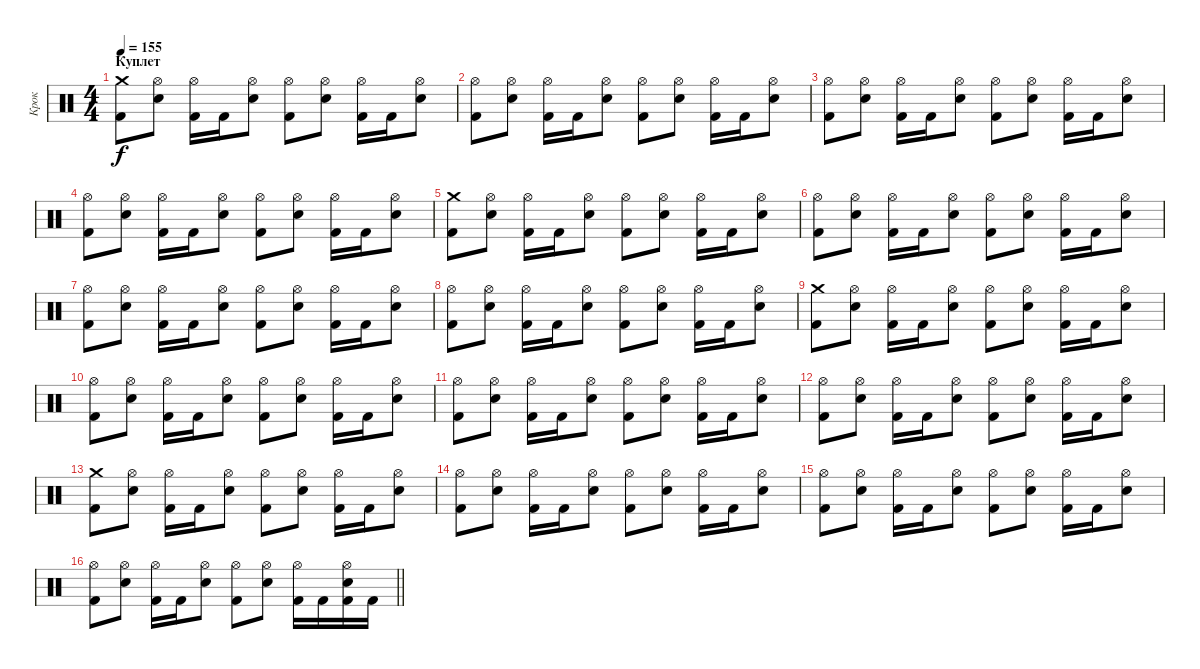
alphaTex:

\track ("Крок" "Крок") {instrument percussion}
\staff {score}
\articulation defaults
\ts (4 4)
\section ("" "Куплет")
\tempo 155
\clef neutral
\ks c
("Crash medium (hit)" "Kick (hit) 2").8{dy f} ("Hi-Hat (open)" "Electric Snare (hit)").8 ("Hi-Hat (open)" "Kick (hit) 2").16 "Kick (hit) 2".16 ("Hi-Hat (open)" "Electric Snare (hit)").8 ("Hi-Hat (open)" "Kick (hit) 2").8 ("Hi-Hat (open)" "Electric Snare (hit)").8 ("Hi-Hat (open)" "Kick (hit) 2").16 "Kick (hit) 2".16 ("Hi-Hat (open)" "Electric Snare (hit)").8 |
("Hi-Hat (open)" "Kick (hit) 2").8 ("Hi-Hat (open)" "Electric Snare (hit)").8 ("Hi-Hat (open)" "Kick (hit) 2").16 "Kick (hit) 2".16 ("Hi-Hat (open)" "Electric Snare (hit)").8 ("Hi-Hat (open)" "Kick (hit) 2").8 ("Hi-Hat (open)" "Electric Snare (hit)").8 ("Hi-Hat (open)" "Kick (hit) 2").16 "Kick (hit) 2".16 ("Hi-Hat (open)" "Electric Snare (hit)").8 |
("Hi-Hat (open)" "Kick (hit) 2").8 ("Hi-Hat (open)" "Electric Snare (hit)").8 ("Hi-Hat (open)" "Kick (hit) 2").16 "Kick (hit) 2".16 ("Hi-Hat (open)" "Electric Snare (hit)").8 ("Hi-Hat (open)" "Kick (hit) 2").8 ("Hi-Hat (open)" "Electric Snare (hit)").8 ("Hi-Hat (open)" "Kick (hit) 2").16 "Kick (hit) 2".16 ("Hi-Hat (open)" "Electric Snare (hit)").8 |
("Hi-Hat (open)" "Kick (hit) 2").8 ("Hi-Hat (open)" "Electric Snare (hit)").8 ("Hi-Hat (open)" "Kick (hit) 2").16 "Kick (hit) 2".16 ("Hi-Hat (open)" "Electric Snare (hit)").8 ("Hi-Hat (open)" "Kick (hit) 2").8 ("Hi-Hat (open)" "Electric Snare (hit)").8 ("Hi-Hat (open)" "Kick (hit) 2").16 "Kick (hit) 2".16 ("Hi-Hat (open)" "Electric Snare (hit)").8 |
("Crash medium (hit)" "Kick (hit) 2").8 ("Hi-Hat (open)" "Electric Snare (hit)").8 ("Hi-Hat (open)" "Kick (hit) 2").16 "Kick (hit) 2".16 ("Hi-Hat (open)" "Electric Snare (hit)").8 ("Hi-Hat (open)" "Kick (hit) 2").8 ("Hi-Hat (open)" "Electric Snare (hit)").8 ("Hi-Hat (open)" "Kick (hit) 2").16 "Kick (hit) 2".16 ("Hi-Hat (open)" "Electric Snare (hit)").8 |
("Hi-Hat (open)" "Kick (hit) 2").8 ("Hi-Hat (open)" "Electric Snare (hit)").8 ("Hi-Hat (open)" "Kick (hit) 2").16 "Kick (hit) 2".16 ("Hi-Hat (open)" "Electric Snare (hit)").8 ("Hi-Hat (open)" "Kick (hit) 2").8 ("Hi-Hat (open)" "Electric Snare (hit)").8 ("Hi-Hat (open)" "Kick (hit) 2").16 "Kick (hit) 2".16 ("Hi-Hat (open)" "Electric Snare (hit)").8 |
("Hi-Hat (open)" "Kick (hit) 2").8 ("Hi-Hat (open)" "Electric Snare (hit)").8 ("Hi-Hat (open)" "Kick (hit) 2").16 "Kick (hit) 2".16 ("Hi-Hat (open)" "Electric Snare (hit)").8 ("Hi-Hat (open)" "Kick (hit) 2").8 ("Hi-Hat (open)" "Electric Snare (hit)").8 ("Hi-Hat (open)" "Kick (hit) 2").16 "Kick (hit) 2".16 ("Hi-Hat (open)" "Electric Snare (hit)").8 |
("Hi-Hat (open)" "Kick (hit) 2").8 ("Hi-Hat (open)" "Electric Snare (hit)").8 ("Hi-Hat (open)" "Kick (hit) 2").16 "Kick (hit) 2".16 ("Hi-Hat (open)" "Electric Snare (hit)").8 ("Hi-Hat (open)" "Kick (hit) 2").8 ("Hi-Hat (open)" "Electric Snare (hit)").8 ("Hi-Hat (open)" "Kick (hit) 2").16 "Kick (hit) 2".16 ("Hi-Hat (open)" "Electric Snare (hit)").8 |
("Crash medium (hit)" "Kick (hit) 2").8 ("Hi-Hat (open)" "Electric Snare (hit)").8 ("Hi-Hat (open)" "Kick (hit) 2").16 "Kick (hit) 2".16 ("Hi-Hat (open)" "Electric Snare (hit)").8 ("Hi-Hat (open)" "Kick (hit) 2").8 ("Hi-Hat (open)" "Electric Snare (hit)").8 ("Hi-Hat (open)" "Kick (hit) 2").16 "Kick (hit) 2".16 ("Hi-Hat (open)" "Electric Snare (hit)").8 |
("Hi-Hat (open)" "Kick (hit) 2").8 ("Hi-Hat (open)" "Electric Snare (hit)").8 ("Hi-Hat (open)" "Kick (hit) 2").16 "Kick (hit) 2".16 ("Hi-Hat (open)" "Electric Snare (hit)").8 ("Hi-Hat (open)" "Kick (hit) 2").8 ("Hi-Hat (open)" "Electric Snare (hit)").8 ("Hi-Hat (open)" "Kick (hit) 2").16 "Kick (hit) 2".16 ("Hi-Hat (open)" "Electric Snare (hit)").8 |
("Hi-Hat (open)" "Kick (hit) 2").8 ("Hi-Hat (open)" "Electric Snare (hit)").8 ("Hi-Hat (open)" "Kick (hit) 2").16 "Kick (hit) 2".16 ("Hi-Hat (open)" "Electric Snare (hit)").8 ("Hi-Hat (open)" "Kick (hit) 2").8 ("Hi-Hat (open)" "Electric Snare (hit)").8 ("Hi-Hat (open)" "Kick (hit) 2").16 "Kick (hit) 2".16 ("Hi-Hat (open)" "Electric Snare (hit)").8 |
("Hi-Hat (open)" "Kick (hit) 2").8 ("Hi-Hat (open)" "Electric Snare (hit)").8 ("Hi-Hat (open)" "Kick (hit) 2").16 "Kick (hit) 2".16 ("Hi-Hat (open)" "Electric Snare (hit)").8 ("Hi-Hat (open)" "Kick (hit) 2").8 ("Hi-Hat (open)" "Electric Snare (hit)").8 ("Hi-Hat (open)" "Kick (hit) 2").16 "Kick (hit) 2".16 ("Hi-Hat (open)" "Electric Snare (hit)").8 |
("Crash medium (hit)" "Kick (hit) 2").8 ("Hi-Hat (open)" "Electric Snare (hit)").8 ("Hi-Hat (open)" "Kick (hit) 2").16 "Kick (hit) 2".16 ("Hi-Hat (open)" "Electric Snare (hit)").8 ("Hi-Hat (open)" "Kick (hit) 2").8 ("Hi-Hat (open)" "Electric Snare (hit)").8 ("Hi-Hat (open)" "Kick (hit) 2").16 "Kick (hit) 2".16 ("Hi-Hat (open)" "Electric Snare (hit)").8 |
("Hi-Hat (open)" "Kick (hit) 2").8 ("Hi-Hat (open)" "Electric Snare (hit)").8 ("Hi-Hat (open)" "Kick (hit) 2").16 "Kick (hit) 2".16 ("Hi-Hat (open)" "Electric Snare (hit)").8 ("Hi-Hat (open)" "Kick (hit) 2").8 ("Hi-Hat (open)" "Electric Snare (hit)").8 ("Hi-Hat (open)" "Kick (hit) 2").16 "Kick (hit) 2".16 ("Hi-Hat (open)" "Electric Snare (hit)").8 |
("Hi-Hat (open)" "Kick (hit) 2").8 ("Hi-Hat (open)" "Electric Snare (hit)").8 ("Hi-Hat (open)" "Kick (hit) 2").16 "Kick (hit) 2".16 ("Hi-Hat (open)" "Electric Snare (hit)").8 ("Hi-Hat (open)" "Kick (hit) 2").8 ("Hi-Hat (open)" "Electric Snare (hit)").8 ("Hi-Hat (open)" "Kick (hit) 2").16 "Kick (hit) 2".16 ("Hi-Hat (open)" "Electric Snare (hit)").8 |
\barLineRight lightlight
("Hi-Hat (open)" "Kick (hit) 2").8 ("Hi-Hat (open)" "Electric Snare (hit)").8 ("Hi-Hat (open)" "Kick (hit) 2").16 "Kick (hit) 2".16 ("Hi-Hat (open)" "Electric Snare (hit)").8 ("Hi-Hat (open)" "Kick (hit) 2").8 ("Hi-Hat (open)" "Electric Snare (hit)").8 ("Hi-Hat (open)" "Kick (hit) 2").16 "Kick (hit) 2".16 ("Hi-Hat (open)" "Kick (hit) 2" "Electric Snare (hit)").16 "Kick (hit) 2".16
